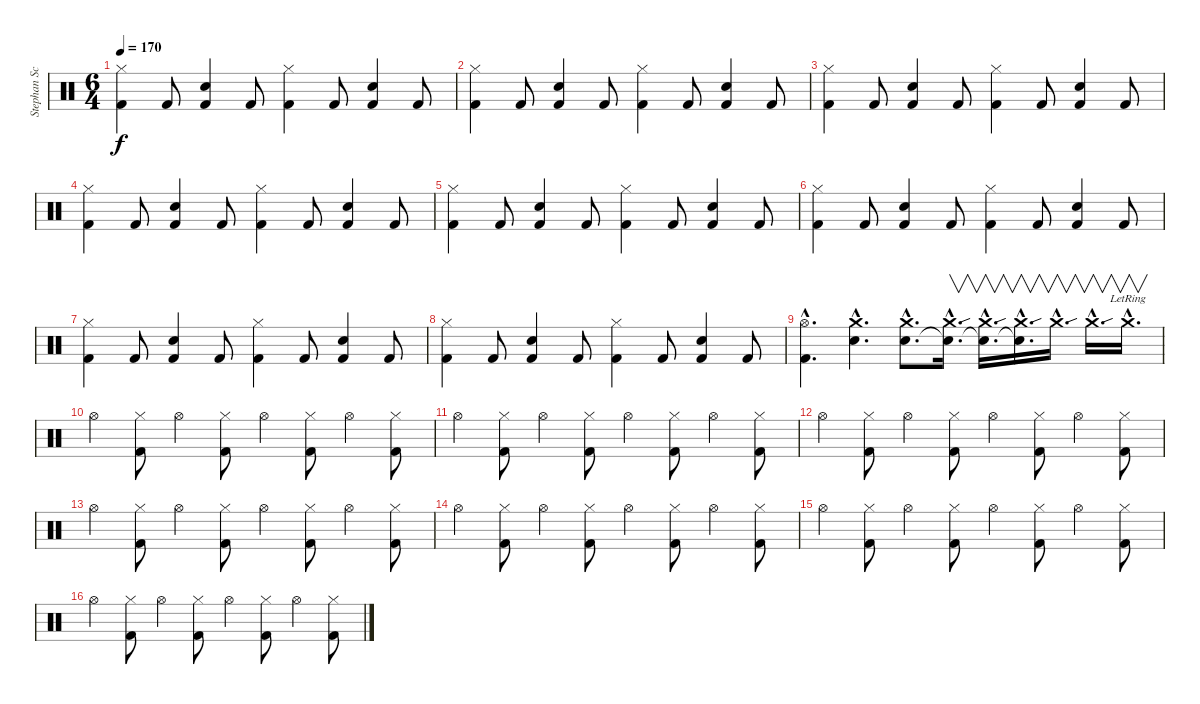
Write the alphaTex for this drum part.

\track ("Stephan Schwartzmann" "Stephan Sc") {instrument percussion}
\staff {score}
\articulation defaults
\ts (6 4)
\tempo 170
\clef neutral
\ks c
("Hi-Hat (closed)" "Kick (hit) 2").4{dy f} "Kick (hit) 2".8 ("Snare (hit) 2" "Kick (hit) 2").4 "Kick (hit) 2".8 ("Hi-Hat (closed)" "Kick (hit) 2").4 "Kick (hit) 2".8 ("Snare (hit) 2" "Kick (hit) 2").4 "Kick (hit) 2".8 |
("Hi-Hat (closed)" "Kick (hit) 2").4 "Kick (hit) 2".8 ("Snare (hit) 2" "Kick (hit) 2").4 "Kick (hit) 2".8 ("Hi-Hat (closed)" "Kick (hit) 2").4 "Kick (hit) 2".8 ("Snare (hit) 2" "Kick (hit) 2").4 "Kick (hit) 2".8 |
("Hi-Hat (closed)" "Kick (hit) 2").4 "Kick (hit) 2".8 ("Snare (hit) 2" "Kick (hit) 2").4 "Kick (hit) 2".8 ("Hi-Hat (closed)" "Kick (hit) 2").4 "Kick (hit) 2".8 ("Snare (hit) 2" "Kick (hit) 2").4 "Kick (hit) 2".8 |
("Hi-Hat (closed)" "Kick (hit) 2").4 "Kick (hit) 2".8 ("Snare (hit) 2" "Kick (hit) 2").4 "Kick (hit) 2".8 ("Hi-Hat (closed)" "Kick (hit) 2").4 "Kick (hit) 2".8 ("Snare (hit) 2" "Kick (hit) 2").4 "Kick (hit) 2".8 |
("Hi-Hat (closed)" "Kick (hit) 2").4 "Kick (hit) 2".8 ("Snare (hit) 2" "Kick (hit) 2").4 "Kick (hit) 2".8 ("Hi-Hat (closed)" "Kick (hit) 2").4 "Kick (hit) 2".8 ("Snare (hit) 2" "Kick (hit) 2").4 "Kick (hit) 2".8 |
("Hi-Hat (closed)" "Kick (hit) 2").4 "Kick (hit) 2".8 ("Snare (hit) 2" "Kick (hit) 2").4 "Kick (hit) 2".8 ("Hi-Hat (closed)" "Kick (hit) 2").4 "Kick (hit) 2".8 ("Snare (hit) 2" "Kick (hit) 2").4 "Kick (hit) 2".8 |
("Hi-Hat (closed)" "Kick (hit) 2").4 "Kick (hit) 2".8 ("Snare (hit) 2" "Kick (hit) 2").4 "Kick (hit) 2".8 ("Hi-Hat (closed)" "Kick (hit) 2").4 "Kick (hit) 2".8 ("Snare (hit) 2" "Kick (hit) 2").4 "Kick (hit) 2".8 |
("Hi-Hat (closed)" "Kick (hit) 2").4 "Kick (hit) 2".8 ("Snare (hit) 2" "Kick (hit) 2").4 "Kick (hit) 2".8 ("Hi-Hat (closed)" "Kick (hit) 2").4 "Kick (hit) 2".8 ("Snare (hit) 2" "Kick (hit) 2").4 "Kick (hit) 2".8 |
("Hi-Hat (open)"{hac} "Kick (hit) 2"{hac}).4{d} ("Crash medium (hit)"{hac} "Snare (hit) 2"{hac}).4{d} ("Crash medium (hit)"{hac} "Snare (hit) 2"{hac}).8{d} ("Crash medium (hit)"{sou hac} "Snare (hit)"{hac t}).16{v d} ("Crash medium (hit)"{sou hac} "Snare (hit)"{hac t}).16{v d} ("Crash medium (hit)"{sou hac} "Snare (hit)"{hac t}).16{v d} "Crash medium (hit)"{sou hac}.16{v d} "Crash medium (hit)"{sou hac}.16{v d} "Crash medium (hit)"{hac lr}.16{v d} |
"Hi-Hat (open)".4 ("Hi-Hat (closed)" "Kick (hit) 2").8 "Hi-Hat (open)".4 ("Hi-Hat (closed)" "Kick (hit) 2").8 "Hi-Hat (open)".4 ("Hi-Hat (closed)" "Kick (hit) 2").8 "Hi-Hat (open)".4 ("Hi-Hat (closed)" "Kick (hit) 2").8 |
"Hi-Hat (open)".4 ("Hi-Hat (closed)" "Kick (hit) 2").8 "Hi-Hat (open)".4 ("Hi-Hat (closed)" "Kick (hit) 2").8 "Hi-Hat (open)".4 ("Hi-Hat (closed)" "Kick (hit) 2").8 "Hi-Hat (open)".4 ("Hi-Hat (closed)" "Kick (hit) 2").8 |
"Hi-Hat (open)".4 ("Hi-Hat (closed)" "Kick (hit) 2").8 "Hi-Hat (open)".4 ("Hi-Hat (closed)" "Kick (hit) 2").8 "Hi-Hat (open)".4 ("Hi-Hat (closed)" "Kick (hit) 2").8 "Hi-Hat (open)".4 ("Hi-Hat (closed)" "Kick (hit) 2").8 |
"Hi-Hat (open)".4 ("Hi-Hat (closed)" "Kick (hit) 2").8 "Hi-Hat (open)".4 ("Hi-Hat (closed)" "Kick (hit) 2").8 "Hi-Hat (open)".4 ("Hi-Hat (closed)" "Kick (hit) 2").8 "Hi-Hat (open)".4 ("Hi-Hat (closed)" "Kick (hit) 2").8 |
"Hi-Hat (open)".4 ("Hi-Hat (closed)" "Kick (hit) 2").8 "Hi-Hat (open)".4 ("Hi-Hat (closed)" "Kick (hit) 2").8 "Hi-Hat (open)".4 ("Hi-Hat (closed)" "Kick (hit) 2").8 "Hi-Hat (open)".4 ("Hi-Hat (closed)" "Kick (hit) 2").8 |
"Hi-Hat (open)".4 ("Hi-Hat (closed)" "Kick (hit) 2").8 "Hi-Hat (open)".4 ("Hi-Hat (closed)" "Kick (hit) 2").8 "Hi-Hat (open)".4 ("Hi-Hat (closed)" "Kick (hit) 2").8 "Hi-Hat (open)".4 ("Hi-Hat (closed)" "Kick (hit) 2").8 |
"Hi-Hat (open)".4 ("Hi-Hat (closed)" "Kick (hit) 2").8 "Hi-Hat (open)".4 ("Hi-Hat (closed)" "Kick (hit) 2").8 "Hi-Hat (open)".4 ("Hi-Hat (closed)" "Kick (hit) 2").8 "Hi-Hat (open)".4 ("Hi-Hat (closed)" "Kick (hit) 2").8
